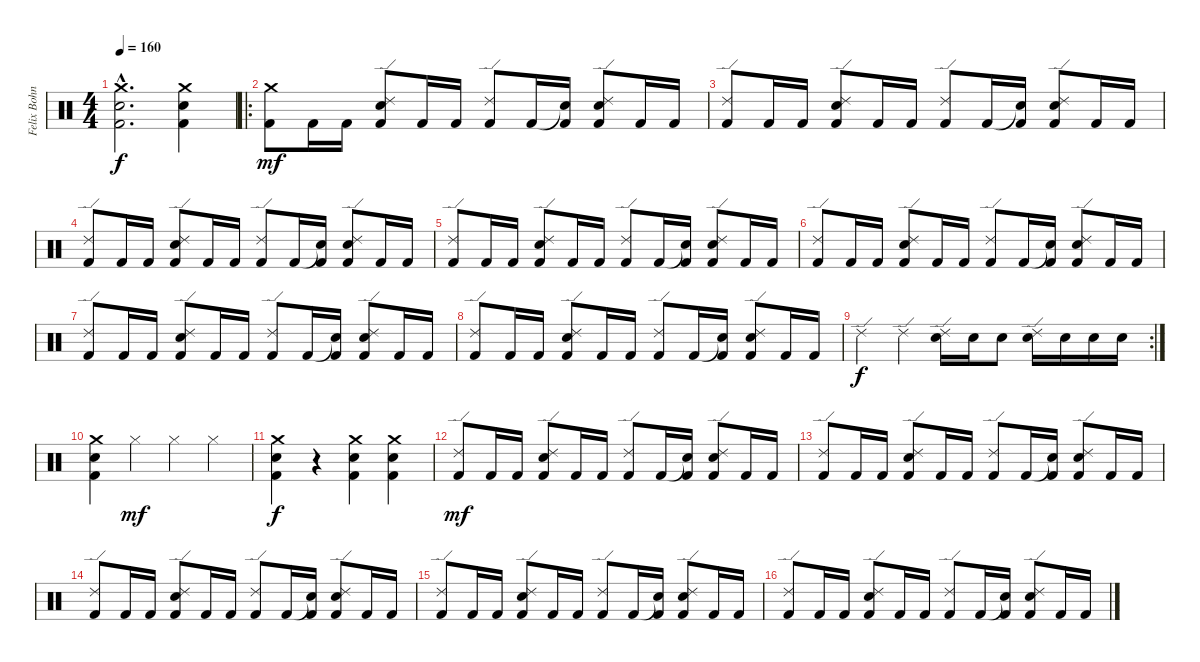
\track ("Felix Bohnke" "Felix Bohn") {instrument percussion}
\staff {score}
\articulation defaults
\ts (4 4)
\tempo 160
\clef neutral
\ks c
("Crash medium (hit)"{hac} "Electric Snare (hit)"{hac} "Kick (hit) 2"{hac}).2{d dy f} ("Crash medium (hit)" "Electric Snare (hit)" "Kick (hit) 2").4 |
\ro
("Crash medium (hit)" "Kick (hit) 2").8{dy mf} "Kick (hit) 2".16 "Kick (hit) 2".16 ("Ride (edge) 2" "Electric Snare (hit)" "Kick (hit) 2").8 "Kick (hit) 2".16 "Kick (hit) 2".16 ("Ride (edge) 2" "Kick (hit) 2").8 "Kick (hit) 2".16 ("Snare (hit)"{t} "Kick (hit) 2").16 ("Ride (edge) 2" "Electric Snare (hit)" "Kick (hit) 2").8 "Kick (hit) 2".16 "Kick (hit) 2".16 |
("Ride (edge) 2" "Kick (hit) 2").8 "Kick (hit) 2".16 "Kick (hit) 2".16 ("Ride (edge) 2" "Electric Snare (hit)" "Kick (hit) 2").8 "Kick (hit) 2".16 "Kick (hit) 2".16 ("Ride (edge) 2" "Kick (hit) 2").8 "Kick (hit) 2".16 ("Snare (hit)"{t} "Kick (hit) 2").16 ("Ride (edge) 2" "Electric Snare (hit)" "Kick (hit) 2").8 "Kick (hit) 2".16 "Kick (hit) 2".16 |
("Ride (edge) 2" "Kick (hit) 2").8 "Kick (hit) 2".16 "Kick (hit) 2".16 ("Ride (edge) 2" "Electric Snare (hit)" "Kick (hit) 2").8 "Kick (hit) 2".16 "Kick (hit) 2".16 ("Ride (edge) 2" "Kick (hit) 2").8 "Kick (hit) 2".16 ("Snare (hit)"{t} "Kick (hit) 2").16 ("Ride (edge) 2" "Electric Snare (hit)" "Kick (hit) 2").8 "Kick (hit) 2".16 "Kick (hit) 2".16 |
("Ride (edge) 2" "Kick (hit) 2").8 "Kick (hit) 2".16 "Kick (hit) 2".16 ("Ride (edge) 2" "Electric Snare (hit)" "Kick (hit) 2").8 "Kick (hit) 2".16 "Kick (hit) 2".16 ("Ride (edge) 2" "Kick (hit) 2").8 "Kick (hit) 2".16 ("Snare (hit)"{t} "Kick (hit) 2").16 ("Ride (edge) 2" "Electric Snare (hit)" "Kick (hit) 2").8 "Kick (hit) 2".16 "Kick (hit) 2".16 |
("Ride (edge) 2" "Kick (hit) 2").8 "Kick (hit) 2".16 "Kick (hit) 2".16 ("Ride (edge) 2" "Electric Snare (hit)" "Kick (hit) 2").8 "Kick (hit) 2".16 "Kick (hit) 2".16 ("Ride (edge) 2" "Kick (hit) 2").8 "Kick (hit) 2".16 ("Snare (hit)"{t} "Kick (hit) 2").16 ("Ride (edge) 2" "Electric Snare (hit)" "Kick (hit) 2").8 "Kick (hit) 2".16 "Kick (hit) 2".16 |
("Ride (edge) 2" "Kick (hit) 2").8 "Kick (hit) 2".16 "Kick (hit) 2".16 ("Ride (edge) 2" "Electric Snare (hit)" "Kick (hit) 2").8 "Kick (hit) 2".16 "Kick (hit) 2".16 ("Ride (edge) 2" "Kick (hit) 2").8 "Kick (hit) 2".16 ("Snare (hit)"{t} "Kick (hit) 2").16 ("Ride (edge) 2" "Electric Snare (hit)" "Kick (hit) 2").8 "Kick (hit) 2".16 "Kick (hit) 2".16 |
("Ride (edge) 2" "Kick (hit) 2").8 "Kick (hit) 2".16 "Kick (hit) 2".16 ("Ride (edge) 2" "Electric Snare (hit)" "Kick (hit) 2").8 "Kick (hit) 2".16 "Kick (hit) 2".16 ("Ride (edge) 2" "Kick (hit) 2").8 "Kick (hit) 2".16 ("Snare (hit)"{t} "Kick (hit) 2").16 ("Ride (edge) 2" "Electric Snare (hit)" "Kick (hit) 2").8 "Kick (hit) 2".16 "Kick (hit) 2".16 |
\rc 2 "Ride (edge) 2".4{dy f} "Ride (edge) 2".4
("Ride (edge) 2" "Electric Snare (hit)").16 "Electric Snare (hit)".16 "Electric Snare (hit)".8 ("Ride (edge) 2" "Electric Snare (hit)").16 "Electric Snare (hit)".16 "Electric Snare (hit)".16 "Electric Snare (hit)".16 |
("Crash medium (hit)" "Electric Snare (hit)" "Kick (hit) 2").4 "Hi-Hat (closed)".4{dy mf} "Hi-Hat (closed)".4 "Hi-Hat (closed)".4 |
("Crash medium (hit)" "Electric Snare (hit)" "Kick (hit) 2").4{dy f} r.4 ("Crash medium (hit)" "Electric Snare (hit)" "Kick (hit) 2").4 ("Crash medium (hit)" "Electric Snare (hit)" "Kick (hit) 2").4 |
("Ride (edge) 2" "Kick (hit) 2").8{dy mf} "Kick (hit) 2".16 "Kick (hit) 2".16 ("Ride (edge) 2" "Electric Snare (hit)" "Kick (hit) 2").8 "Kick (hit) 2".16 "Kick (hit) 2".16 ("Ride (edge) 2" "Kick (hit) 2").8 "Kick (hit) 2".16 ("Snare (hit)"{t} "Kick (hit) 2").16 ("Ride (edge) 2" "Electric Snare (hit)" "Kick (hit) 2").8 "Kick (hit) 2".16 "Kick (hit) 2".16 |
("Ride (edge) 2" "Kick (hit) 2").8 "Kick (hit) 2".16 "Kick (hit) 2".16 ("Ride (edge) 2" "Electric Snare (hit)" "Kick (hit) 2").8 "Kick (hit) 2".16 "Kick (hit) 2".16 ("Ride (edge) 2" "Kick (hit) 2").8 "Kick (hit) 2".16 ("Snare (hit)"{t} "Kick (hit) 2").16 ("Ride (edge) 2" "Electric Snare (hit)" "Kick (hit) 2").8 "Kick (hit) 2".16 "Kick (hit) 2".16 |
("Ride (edge) 2" "Kick (hit) 2").8 "Kick (hit) 2".16 "Kick (hit) 2".16 ("Ride (edge) 2" "Electric Snare (hit)" "Kick (hit) 2").8 "Kick (hit) 2".16 "Kick (hit) 2".16 ("Ride (edge) 2" "Kick (hit) 2").8 "Kick (hit) 2".16 ("Snare (hit)"{t} "Kick (hit) 2").16 ("Ride (edge) 2" "Electric Snare (hit)" "Kick (hit) 2").8 "Kick (hit) 2".16 "Kick (hit) 2".16 |
("Ride (edge) 2" "Kick (hit) 2").8 "Kick (hit) 2".16 "Kick (hit) 2".16 ("Ride (edge) 2" "Electric Snare (hit)" "Kick (hit) 2").8 "Kick (hit) 2".16 "Kick (hit) 2".16 ("Ride (edge) 2" "Kick (hit) 2").8 "Kick (hit) 2".16 ("Snare (hit)"{t} "Kick (hit) 2").16 ("Ride (edge) 2" "Electric Snare (hit)" "Kick (hit) 2").8 "Kick (hit) 2".16 "Kick (hit) 2".16 |
("Ride (edge) 2" "Kick (hit) 2").8 "Kick (hit) 2".16 "Kick (hit) 2".16 ("Ride (edge) 2" "Electric Snare (hit)" "Kick (hit) 2").8 "Kick (hit) 2".16 "Kick (hit) 2".16 ("Ride (edge) 2" "Kick (hit) 2").8 "Kick (hit) 2".16 ("Snare (hit)"{t} "Kick (hit) 2").16 ("Ride (edge) 2" "Electric Snare (hit)" "Kick (hit) 2").8 "Kick (hit) 2".16 "Kick (hit) 2".16
